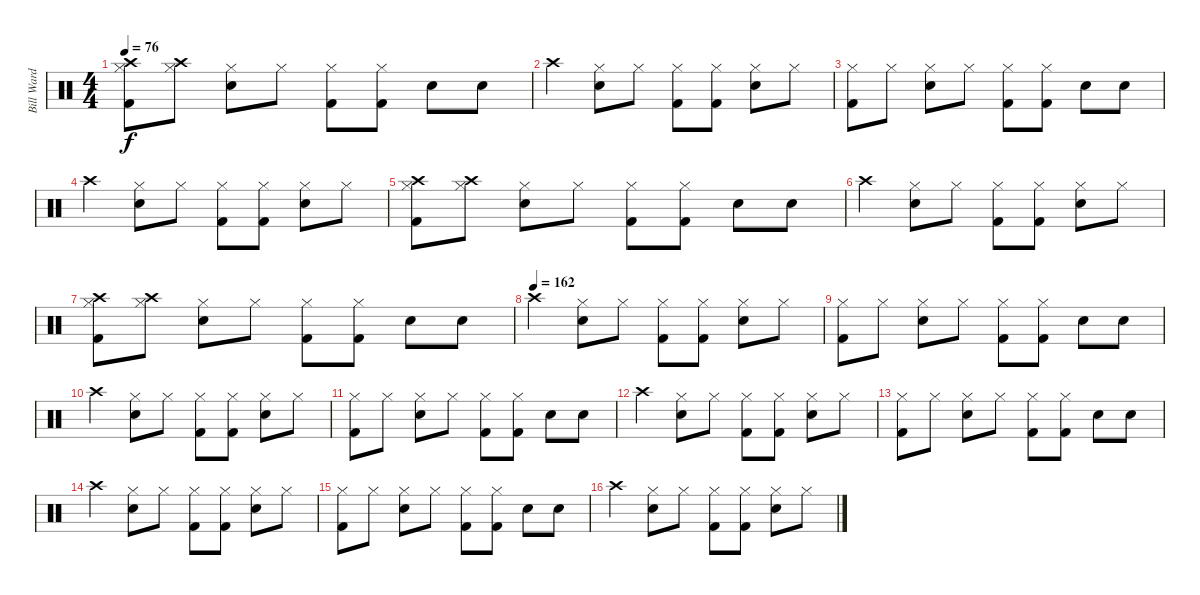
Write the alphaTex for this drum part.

\track ("Bill Ward" "Bill Ward") {instrument percussion}
\staff {score}
\articulation defaults
\ts (4 4)
\tempo 76
\clef neutral
\ks c
("Crash high (hit)" "Kick (hit) 2" "Hi-Hat (closed)").8{dy f} ("Crash high (hit)" "Hi-Hat (closed)").8 ("Snare (hit) 2" "Hi-Hat (closed)").8 "Hi-Hat (closed)".8 ("Kick (hit) 2" "Hi-Hat (closed)").8 ("Kick (hit) 2" "Hi-Hat (closed)").8 "Snare (hit) 2".8 "Snare (hit) 2".8 |
"Crash high (hit)".4 ("Snare (hit) 2" "Hi-Hat (closed)").8 "Hi-Hat (closed)".8 ("Kick (hit) 2" "Hi-Hat (closed)").8 ("Kick (hit) 2" "Hi-Hat (closed)").8 ("Snare (hit) 2" "Hi-Hat (closed)").8 "Hi-Hat (closed)".8 |
("Kick (hit) 2" "Hi-Hat (closed)").8 "Hi-Hat (closed)".8 ("Snare (hit) 2" "Hi-Hat (closed)").8 "Hi-Hat (closed)".8 ("Kick (hit) 2" "Hi-Hat (closed)").8 ("Kick (hit) 2" "Hi-Hat (closed)").8 "Snare (hit) 2".8 "Snare (hit) 2".8 |
"Crash high (hit)".4 ("Snare (hit) 2" "Hi-Hat (closed)").8 "Hi-Hat (closed)".8 ("Kick (hit) 2" "Hi-Hat (closed)").8 ("Kick (hit) 2" "Hi-Hat (closed)").8 ("Snare (hit) 2" "Hi-Hat (closed)").8 "Hi-Hat (closed)".8 |
("Crash high (hit)" "Kick (hit) 2" "Hi-Hat (closed)").8 ("Crash high (hit)" "Hi-Hat (closed)").8 ("Snare (hit) 2" "Hi-Hat (closed)").8 "Hi-Hat (closed)".8 ("Kick (hit) 2" "Hi-Hat (closed)").8 ("Kick (hit) 2" "Hi-Hat (closed)").8 "Snare (hit) 2".8 "Snare (hit) 2".8 |
"Crash high (hit)".4 ("Snare (hit) 2" "Hi-Hat (closed)").8 "Hi-Hat (closed)".8 ("Kick (hit) 2" "Hi-Hat (closed)").8 ("Kick (hit) 2" "Hi-Hat (closed)").8 ("Snare (hit) 2" "Hi-Hat (closed)").8 "Hi-Hat (closed)".8 |
("Crash high (hit)" "Kick (hit) 2" "Hi-Hat (closed)").8 ("Crash high (hit)" "Hi-Hat (closed)").8 ("Snare (hit) 2" "Hi-Hat (closed)").8 "Hi-Hat (closed)".8 ("Kick (hit) 2" "Hi-Hat (closed)").8 ("Kick (hit) 2" "Hi-Hat (closed)").8 "Snare (hit) 2".8 "Snare (hit) 2".8 |
\tempo (162)
"Crash high (hit)".4 ("Snare (hit) 2" "Hi-Hat (closed)").8 "Hi-Hat (closed)".8 ("Kick (hit) 2" "Hi-Hat (closed)").8 ("Kick (hit) 2" "Hi-Hat (closed)").8 ("Snare (hit) 2" "Hi-Hat (closed)").8 "Hi-Hat (closed)".8 |
("Kick (hit) 2" "Hi-Hat (closed)").8 "Hi-Hat (closed)".8 ("Snare (hit) 2" "Hi-Hat (closed)").8 "Hi-Hat (closed)".8 ("Kick (hit) 2" "Hi-Hat (closed)").8 ("Kick (hit) 2" "Hi-Hat (closed)").8 "Snare (hit) 2".8 "Snare (hit) 2".8 |
"Crash high (hit)".4 ("Snare (hit) 2" "Hi-Hat (closed)").8 "Hi-Hat (closed)".8 ("Kick (hit) 2" "Hi-Hat (closed)").8 ("Kick (hit) 2" "Hi-Hat (closed)").8 ("Snare (hit) 2" "Hi-Hat (closed)").8 "Hi-Hat (closed)".8 |
("Kick (hit) 2" "Hi-Hat (closed)").8 "Hi-Hat (closed)".8 ("Snare (hit) 2" "Hi-Hat (closed)").8 "Hi-Hat (closed)".8 ("Kick (hit) 2" "Hi-Hat (closed)").8 ("Kick (hit) 2" "Hi-Hat (closed)").8 "Snare (hit) 2".8 "Snare (hit) 2".8 |
"Crash high (hit)".4 ("Snare (hit) 2" "Hi-Hat (closed)").8 "Hi-Hat (closed)".8 ("Kick (hit) 2" "Hi-Hat (closed)").8 ("Kick (hit) 2" "Hi-Hat (closed)").8 ("Snare (hit) 2" "Hi-Hat (closed)").8 "Hi-Hat (closed)".8 |
("Kick (hit) 2" "Hi-Hat (closed)").8 "Hi-Hat (closed)".8 ("Snare (hit) 2" "Hi-Hat (closed)").8 "Hi-Hat (closed)".8 ("Kick (hit) 2" "Hi-Hat (closed)").8 ("Kick (hit) 2" "Hi-Hat (closed)").8 "Snare (hit) 2".8 "Snare (hit) 2".8 |
"Crash high (hit)".4 ("Snare (hit) 2" "Hi-Hat (closed)").8 "Hi-Hat (closed)".8 ("Kick (hit) 2" "Hi-Hat (closed)").8 ("Kick (hit) 2" "Hi-Hat (closed)").8 ("Snare (hit) 2" "Hi-Hat (closed)").8 "Hi-Hat (closed)".8 |
("Kick (hit) 2" "Hi-Hat (closed)").8 "Hi-Hat (closed)".8 ("Snare (hit) 2" "Hi-Hat (closed)").8 "Hi-Hat (closed)".8 ("Kick (hit) 2" "Hi-Hat (closed)").8 ("Kick (hit) 2" "Hi-Hat (closed)").8 "Snare (hit) 2".8 "Snare (hit) 2".8 |
"Crash high (hit)".4 ("Snare (hit) 2" "Hi-Hat (closed)").8 "Hi-Hat (closed)".8 ("Kick (hit) 2" "Hi-Hat (closed)").8 ("Kick (hit) 2" "Hi-Hat (closed)").8 ("Snare (hit) 2" "Hi-Hat (closed)").8 "Hi-Hat (closed)".8
